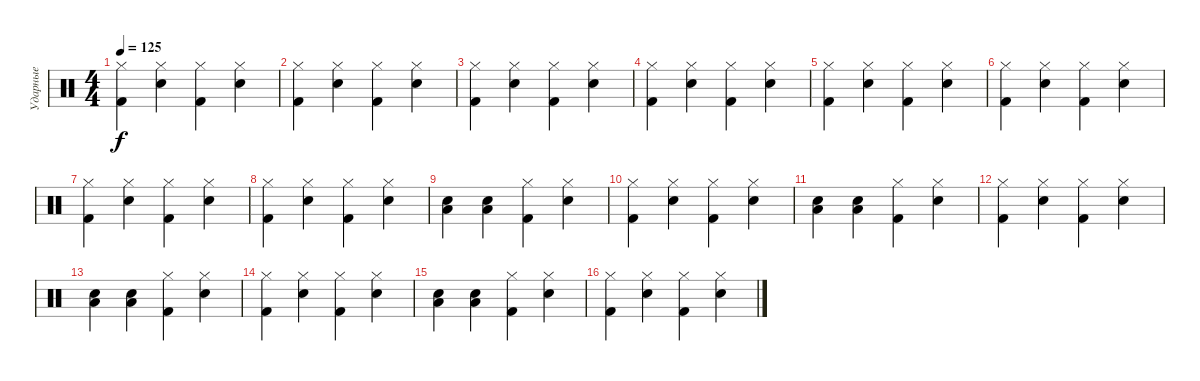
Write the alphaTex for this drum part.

\track ("Ударные" "Ударные") {instrument percussion}
\staff {score}
\articulation defaults
\ts (4 4)
\tempo 125
\clef neutral
\ks c
("Hi-Hat (closed)" "Kick (hit) 2").4{dy f} ("Hi-Hat (closed)" "Snare (hit) 2").4 ("Hi-Hat (closed)" "Kick (hit) 2").4 ("Hi-Hat (closed)" "Snare (hit) 2").4 |
("Hi-Hat (closed)" "Kick (hit) 2").4 ("Hi-Hat (closed)" "Snare (hit) 2").4 ("Hi-Hat (closed)" "Kick (hit) 2").4 ("Hi-Hat (closed)" "Snare (hit) 2").4 |
("Hi-Hat (closed)" "Kick (hit) 2").4 ("Hi-Hat (closed)" "Snare (hit) 2").4 ("Hi-Hat (closed)" "Kick (hit) 2").4 ("Hi-Hat (closed)" "Snare (hit) 2").4 |
("Hi-Hat (closed)" "Kick (hit) 2").4 ("Hi-Hat (closed)" "Snare (hit) 2").4 ("Hi-Hat (closed)" "Kick (hit) 2").4 ("Hi-Hat (closed)" "Snare (hit) 2").4 |
("Hi-Hat (closed)" "Kick (hit) 2").4 ("Hi-Hat (closed)" "Snare (hit) 2").4 ("Hi-Hat (closed)" "Kick (hit) 2").4 ("Hi-Hat (closed)" "Snare (hit) 2").4 |
("Hi-Hat (closed)" "Kick (hit) 2").4 ("Hi-Hat (closed)" "Snare (hit) 2").4 ("Hi-Hat (closed)" "Kick (hit) 2").4 ("Hi-Hat (closed)" "Snare (hit) 2").4 |
("Hi-Hat (closed)" "Kick (hit) 2").4 ("Hi-Hat (closed)" "Snare (hit) 2").4 ("Hi-Hat (closed)" "Kick (hit) 2").4 ("Hi-Hat (closed)" "Snare (hit) 2").4 |
("Hi-Hat (closed)" "Kick (hit) 2").4 ("Hi-Hat (closed)" "Snare (hit) 2").4 ("Hi-Hat (closed)" "Kick (hit) 2").4 ("Hi-Hat (closed)" "Snare (hit) 2").4 |
("Snare (hit) 2" "Low Tom (hit)").4 ("Snare (hit) 2" "Low Tom (hit)").4 ("Hi-Hat (closed)" "Kick (hit) 2").4 ("Hi-Hat (closed)" "Snare (hit) 2").4 |
("Hi-Hat (closed)" "Kick (hit) 2").4 ("Hi-Hat (closed)" "Snare (hit) 2").4 ("Hi-Hat (closed)" "Kick (hit) 2").4 ("Hi-Hat (closed)" "Snare (hit) 2").4 |
("Snare (hit) 2" "Low Tom (hit)").4 ("Snare (hit) 2" "Low Tom (hit)").4 ("Hi-Hat (closed)" "Kick (hit) 2").4 ("Hi-Hat (closed)" "Snare (hit) 2").4 |
("Hi-Hat (closed)" "Kick (hit) 2").4 ("Hi-Hat (closed)" "Snare (hit) 2").4 ("Hi-Hat (closed)" "Kick (hit) 2").4 ("Hi-Hat (closed)" "Snare (hit) 2").4 |
("Snare (hit) 2" "Low Tom (hit)").4 ("Snare (hit) 2" "Low Tom (hit)").4 ("Hi-Hat (closed)" "Kick (hit) 2").4 ("Hi-Hat (closed)" "Snare (hit) 2").4 |
("Hi-Hat (closed)" "Kick (hit) 2").4 ("Hi-Hat (closed)" "Snare (hit) 2").4 ("Hi-Hat (closed)" "Kick (hit) 2").4 ("Hi-Hat (closed)" "Snare (hit) 2").4 |
("Snare (hit) 2" "Low Tom (hit)").4 ("Snare (hit) 2" "Low Tom (hit)").4 ("Hi-Hat (closed)" "Kick (hit) 2").4 ("Hi-Hat (closed)" "Snare (hit) 2").4 |
("Hi-Hat (closed)" "Kick (hit) 2").4 ("Hi-Hat (closed)" "Snare (hit) 2").4 ("Hi-Hat (closed)" "Kick (hit) 2").4 ("Hi-Hat (closed)" "Snare (hit) 2").4
